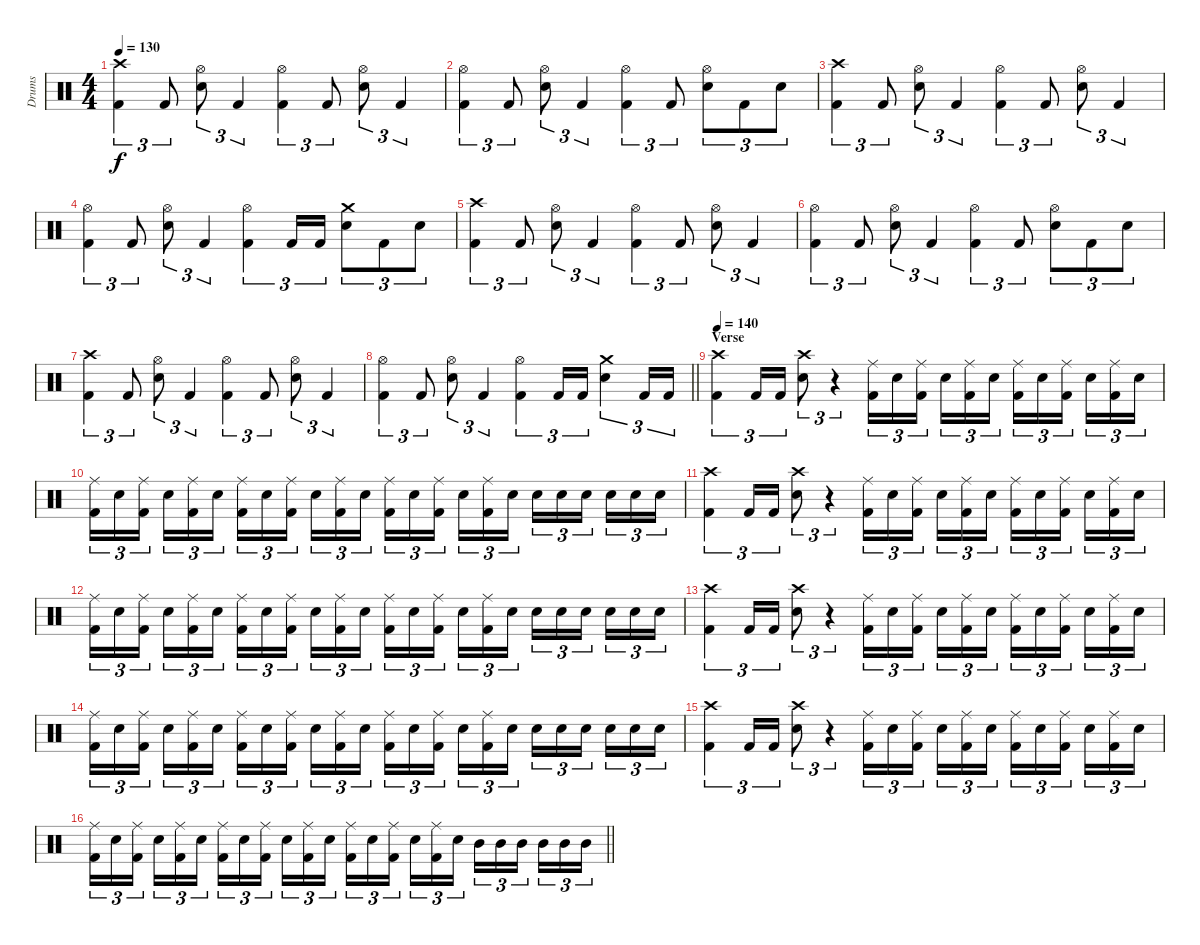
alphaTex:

\track ("Drums" "Drums") {instrument percussion}
\staff {score}
\articulation defaults
\ts (4 4)
\tempo 130
\clef neutral
\ks c
("Crash high (hit)" "Kick (hit) 2").4{tu (3 2) dy f} "Kick (hit) 2".8{tu (3 2)} ("Hi-Hat (open)" "Electric Snare (hit)").8{tu (3 2)} "Kick (hit) 2".4{tu (3 2)} ("Hi-Hat (open)" "Kick (hit) 2").4{tu (3 2)} "Kick (hit) 2".8{tu (3 2)} ("Hi-Hat (open)" "Electric Snare (hit)").8{tu (3 2)} "Kick (hit) 2".4{tu (3 2)} |
("Hi-Hat (open)" "Kick (hit) 2").4{tu (3 2)} "Kick (hit) 2".8{tu (3 2)} ("Hi-Hat (open)" "Electric Snare (hit)").8{tu (3 2)} "Kick (hit) 2".4{tu (3 2)} ("Hi-Hat (open)" "Kick (hit) 2").4{tu (3 2)} "Kick (hit) 2".8{tu (3 2)} ("Hi-Hat (open)" "Electric Snare (hit)").8{tu (3 2)} "Kick (hit) 2".8{tu (3 2)} "Electric Snare (hit)".8{tu (3 2)} |
("Crash high (hit)" "Kick (hit) 2").4{tu (3 2)} "Kick (hit) 2".8{tu (3 2)} ("Hi-Hat (open)" "Electric Snare (hit)").8{tu (3 2)} "Kick (hit) 2".4{tu (3 2)} ("Hi-Hat (open)" "Kick (hit) 2").4{tu (3 2)} "Kick (hit) 2".8{tu (3 2)} ("Hi-Hat (open)" "Electric Snare (hit)").8{tu (3 2)} "Kick (hit) 2".4{tu (3 2)} |
("Hi-Hat (open)" "Kick (hit) 2").4{tu (3 2)} "Kick (hit) 2".8{tu (3 2)} ("Hi-Hat (open)" "Electric Snare (hit)").8{tu (3 2)} "Kick (hit) 2".4{tu (3 2)} ("Hi-Hat (open)" "Kick (hit) 2").4{tu (3 2)} "Kick (hit) 2".16{tu (3 2)} "Kick (hit) 2".16{tu (3 2)} ("Crash medium (hit)" "Electric Snare (hit)").8{tu (3 2)} "Kick (hit) 2".8{tu (3 2)} "Electric Snare (hit)".8{tu (3 2)} |
("Crash high (hit)" "Kick (hit) 2").4{tu (3 2)} "Kick (hit) 2".8{tu (3 2)} ("Hi-Hat (open)" "Electric Snare (hit)").8{tu (3 2)} "Kick (hit) 2".4{tu (3 2)} ("Hi-Hat (open)" "Kick (hit) 2").4{tu (3 2)} "Kick (hit) 2".8{tu (3 2)} ("Hi-Hat (open)" "Electric Snare (hit)").8{tu (3 2)} "Kick (hit) 2".4{tu (3 2)} |
("Hi-Hat (open)" "Kick (hit) 2").4{tu (3 2)} "Kick (hit) 2".8{tu (3 2)} ("Hi-Hat (open)" "Electric Snare (hit)").8{tu (3 2)} "Kick (hit) 2".4{tu (3 2)} ("Hi-Hat (open)" "Kick (hit) 2").4{tu (3 2)} "Kick (hit) 2".8{tu (3 2)} ("Hi-Hat (open)" "Electric Snare (hit)").8{tu (3 2)} "Kick (hit) 2".8{tu (3 2)} "Electric Snare (hit)".8{tu (3 2)} |
("Crash high (hit)" "Kick (hit) 2").4{tu (3 2)} "Kick (hit) 2".8{tu (3 2)} ("Hi-Hat (open)" "Electric Snare (hit)").8{tu (3 2)} "Kick (hit) 2".4{tu (3 2)} ("Hi-Hat (open)" "Kick (hit) 2").4{tu (3 2)} "Kick (hit) 2".8{tu (3 2)} ("Hi-Hat (open)" "Electric Snare (hit)").8{tu (3 2)} "Kick (hit) 2".4{tu (3 2)} |
\barLineRight lightlight
("Hi-Hat (open)" "Kick (hit) 2").4{tu (3 2)} "Kick (hit) 2".8{tu (3 2)} ("Hi-Hat (open)" "Electric Snare (hit)").8{tu (3 2)} "Kick (hit) 2".4{tu (3 2)} ("Hi-Hat (open)" "Kick (hit) 2").4{tu (3 2)} "Kick (hit) 2".16{tu (3 2)} "Kick (hit) 2".16{tu (3 2)} ("Crash medium (hit)" "Electric Snare (hit)").4{tu (3 2)} "Kick (hit) 2".16{tu (3 2)} "Kick (hit) 2".16{tu (3 2)} |
\section ("" "Verse")
\tempo 140
("Crash high (hit)" "Kick (hit) 2").4{tu (3 2)} "Kick (hit) 2".16{tu (3 2)} "Kick (hit) 2".16{tu (3 2)} ("Crash high (hit)" "Electric Snare (hit)").8{tu (3 2)} r.4{tu (3 2)} ("Ride (middle)" "Kick (hit) 2").16{tu (3 2)} "Electric Snare (hit)".16{tu (3 2)} ("Ride (middle)" "Kick (hit) 2").16{tu (3 2)} "Electric Snare (hit)".16{tu (3 2)} ("Ride (middle)" "Kick (hit) 2").16{tu (3 2)} "Electric Snare (hit)".16{tu (3 2)} ("Ride (middle)" "Kick (hit) 2").16{tu (3 2)} "Electric Snare (hit)".16{tu (3 2)} ("Ride (middle)" "Kick (hit) 2").16{tu (3 2)} "Electric Snare (hit)".16{tu (3 2)} ("Ride (middle)" "Kick (hit) 2").16{tu (3 2)} "Electric Snare (hit)".16{tu (3 2)} |
("Ride (middle)" "Kick (hit) 2").16{tu (3 2)} "Electric Snare (hit)".16{tu (3 2)} ("Ride (middle)" "Kick (hit) 2").16{tu (3 2)} "Electric Snare (hit)".16{tu (3 2)} ("Ride (middle)" "Kick (hit) 2").16{tu (3 2)} "Electric Snare (hit)".16{tu (3 2)} ("Ride (middle)" "Kick (hit) 2").16{tu (3 2)} "Electric Snare (hit)".16{tu (3 2)} ("Ride (middle)" "Kick (hit) 2").16{tu (3 2)} "Electric Snare (hit)".16{tu (3 2)} ("Ride (middle)" "Kick (hit) 2").16{tu (3 2)} "Electric Snare (hit)".16{tu (3 2)} ("Ride (middle)" "Kick (hit) 2").16{tu (3 2)} "Electric Snare (hit)".16{tu (3 2)} ("Ride (middle)" "Kick (hit) 2").16{tu (3 2)} "Electric Snare (hit)".16{tu (3 2)} ("Ride (middle)" "Kick (hit) 2").16{tu (3 2)} "Electric Snare (hit)".16{tu (3 2)} "Electric Snare (hit)".16{tu (3 2)} "Electric Snare (hit)".16{tu (3 2)} "Electric Snare (hit)".16{tu (3 2)} "Electric Snare (hit)".16{tu (3 2)} "Electric Snare (hit)".16{tu (3 2)} "Electric Snare (hit)".16{tu (3 2)} |
("Crash high (hit)" "Kick (hit) 2").4{tu (3 2)} "Kick (hit) 2".16{tu (3 2)} "Kick (hit) 2".16{tu (3 2)} ("Crash high (hit)" "Electric Snare (hit)").8{tu (3 2)} r.4{tu (3 2)} ("Ride (middle)" "Kick (hit) 2").16{tu (3 2)} "Electric Snare (hit)".16{tu (3 2)} ("Ride (middle)" "Kick (hit) 2").16{tu (3 2)} "Electric Snare (hit)".16{tu (3 2)} ("Ride (middle)" "Kick (hit) 2").16{tu (3 2)} "Electric Snare (hit)".16{tu (3 2)} ("Ride (middle)" "Kick (hit) 2").16{tu (3 2)} "Electric Snare (hit)".16{tu (3 2)} ("Ride (middle)" "Kick (hit) 2").16{tu (3 2)} "Electric Snare (hit)".16{tu (3 2)} ("Ride (middle)" "Kick (hit) 2").16{tu (3 2)} "Electric Snare (hit)".16{tu (3 2)} |
("Ride (middle)" "Kick (hit) 2").16{tu (3 2)} "Electric Snare (hit)".16{tu (3 2)} ("Ride (middle)" "Kick (hit) 2").16{tu (3 2)} "Electric Snare (hit)".16{tu (3 2)} ("Ride (middle)" "Kick (hit) 2").16{tu (3 2)} "Electric Snare (hit)".16{tu (3 2)} ("Ride (middle)" "Kick (hit) 2").16{tu (3 2)} "Electric Snare (hit)".16{tu (3 2)} ("Ride (middle)" "Kick (hit) 2").16{tu (3 2)} "Electric Snare (hit)".16{tu (3 2)} ("Ride (middle)" "Kick (hit) 2").16{tu (3 2)} "Electric Snare (hit)".16{tu (3 2)} ("Ride (middle)" "Kick (hit) 2").16{tu (3 2)} "Electric Snare (hit)".16{tu (3 2)} ("Ride (middle)" "Kick (hit) 2").16{tu (3 2)} "Electric Snare (hit)".16{tu (3 2)} ("Ride (middle)" "Kick (hit) 2").16{tu (3 2)} "Electric Snare (hit)".16{tu (3 2)} "Electric Snare (hit)".16{tu (3 2)} "Electric Snare (hit)".16{tu (3 2)} "Electric Snare (hit)".16{tu (3 2)} "Electric Snare (hit)".16{tu (3 2)} "Electric Snare (hit)".16{tu (3 2)} "Electric Snare (hit)".16{tu (3 2)} |
("Crash high (hit)" "Kick (hit) 2").4{tu (3 2)} "Kick (hit) 2".16{tu (3 2)} "Kick (hit) 2".16{tu (3 2)} ("Crash high (hit)" "Electric Snare (hit)").8{tu (3 2)} r.4{tu (3 2)} ("Ride (middle)" "Kick (hit) 2").16{tu (3 2)} "Electric Snare (hit)".16{tu (3 2)} ("Ride (middle)" "Kick (hit) 2").16{tu (3 2)} "Electric Snare (hit)".16{tu (3 2)} ("Ride (middle)" "Kick (hit) 2").16{tu (3 2)} "Electric Snare (hit)".16{tu (3 2)} ("Ride (middle)" "Kick (hit) 2").16{tu (3 2)} "Electric Snare (hit)".16{tu (3 2)} ("Ride (middle)" "Kick (hit) 2").16{tu (3 2)} "Electric Snare (hit)".16{tu (3 2)} ("Ride (middle)" "Kick (hit) 2").16{tu (3 2)} "Electric Snare (hit)".16{tu (3 2)} |
("Ride (middle)" "Kick (hit) 2").16{tu (3 2)} "Electric Snare (hit)".16{tu (3 2)} ("Ride (middle)" "Kick (hit) 2").16{tu (3 2)} "Electric Snare (hit)".16{tu (3 2)} ("Ride (middle)" "Kick (hit) 2").16{tu (3 2)} "Electric Snare (hit)".16{tu (3 2)} ("Ride (middle)" "Kick (hit) 2").16{tu (3 2)} "Electric Snare (hit)".16{tu (3 2)} ("Ride (middle)" "Kick (hit) 2").16{tu (3 2)} "Electric Snare (hit)".16{tu (3 2)} ("Ride (middle)" "Kick (hit) 2").16{tu (3 2)} "Electric Snare (hit)".16{tu (3 2)} ("Ride (middle)" "Kick (hit) 2").16{tu (3 2)} "Electric Snare (hit)".16{tu (3 2)} ("Ride (middle)" "Kick (hit) 2").16{tu (3 2)} "Electric Snare (hit)".16{tu (3 2)} ("Ride (middle)" "Kick (hit) 2").16{tu (3 2)} "Electric Snare (hit)".16{tu (3 2)} "Electric Snare (hit)".16{tu (3 2)} "Electric Snare (hit)".16{tu (3 2)} "Electric Snare (hit)".16{tu (3 2)} "Electric Snare (hit)".16{tu (3 2)} "Electric Snare (hit)".16{tu (3 2)} "Electric Snare (hit)".16{tu (3 2)} |
("Crash high (hit)" "Kick (hit) 2").4{tu (3 2)} "Kick (hit) 2".16{tu (3 2)} "Kick (hit) 2".16{tu (3 2)} ("Crash high (hit)" "Electric Snare (hit)").8{tu (3 2)} r.4{tu (3 2)} ("Ride (middle)" "Kick (hit) 2").16{tu (3 2)} "Electric Snare (hit)".16{tu (3 2)} ("Ride (middle)" "Kick (hit) 2").16{tu (3 2)} "Electric Snare (hit)".16{tu (3 2)} ("Ride (middle)" "Kick (hit) 2").16{tu (3 2)} "Electric Snare (hit)".16{tu (3 2)} ("Ride (middle)" "Kick (hit) 2").16{tu (3 2)} "Electric Snare (hit)".16{tu (3 2)} ("Ride (middle)" "Kick (hit) 2").16{tu (3 2)} "Electric Snare (hit)".16{tu (3 2)} ("Ride (middle)" "Kick (hit) 2").16{tu (3 2)} "Electric Snare (hit)".16{tu (3 2)} |
\barLineRight lightlight
("Ride (middle)" "Kick (hit) 2").16{tu (3 2)} "Electric Snare (hit)".16{tu (3 2)} ("Ride (middle)" "Kick (hit) 2").16{tu (3 2)} "Electric Snare (hit)".16{tu (3 2)} ("Ride (middle)" "Kick (hit) 2").16{tu (3 2)} "Electric Snare (hit)".16{tu (3 2)} ("Ride (middle)" "Kick (hit) 2").16{tu (3 2)} "Electric Snare (hit)".16{tu (3 2)} ("Ride (middle)" "Kick (hit) 2").16{tu (3 2)} "Electric Snare (hit)".16{tu (3 2)} ("Ride (middle)" "Kick (hit) 2").16{tu (3 2)} "Electric Snare (hit)".16{tu (3 2)} ("Ride (middle)" "Kick (hit) 2").16{tu (3 2)} "Electric Snare (hit)".16{tu (3 2)} ("Ride (middle)" "Kick (hit) 2").16{tu (3 2)} "Electric Snare (hit)".16{tu (3 2)} ("Ride (middle)" "Kick (hit) 2").16{tu (3 2)} "Electric Snare (hit)".16{tu (3 2)} "Mid Tom (hit)".16{tu (3 2)} "Mid Tom (hit)".16{tu (3 2)} "Mid Tom (hit)".16{tu (3 2)} "Mid Tom (hit)".16{tu (3 2)} "Mid Tom (hit)".16{tu (3 2)} "Mid Tom (hit)".16{tu (3 2)}
